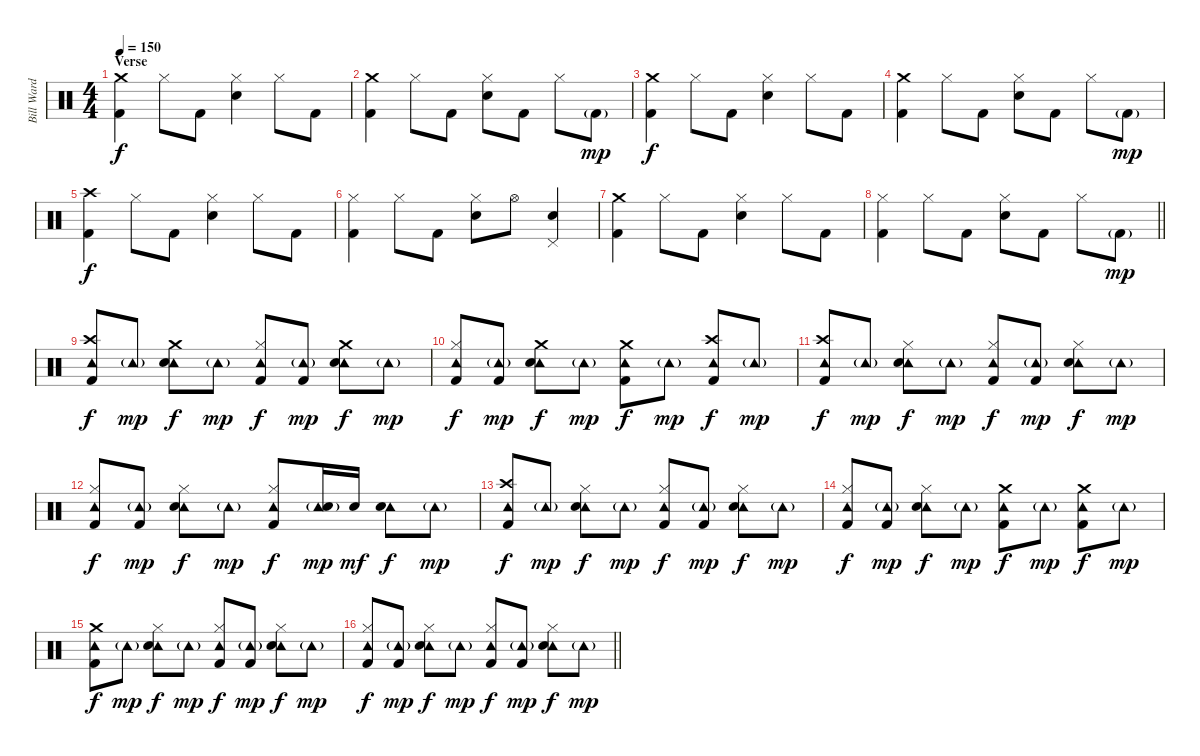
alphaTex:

\track ("Bill Ward" "Bill Ward") {instrument percussion}
\staff {score}
\articulation defaults
\ts (4 4)
\section ("" "Verse")
\tempo 150
\clef neutral
\ks c
("Crash medium (hit)" "Kick (hit) 2").4{dy f} "Hi-Hat (closed)".8 "Kick (hit) 2".8 ("Hi-Hat (closed)" "Electric Snare (hit)").4 "Hi-Hat (closed)".8 "Kick (hit) 2".8 |
("Crash medium (hit)" "Kick (hit) 2").4 "Hi-Hat (closed)".8 "Kick (hit) 2".8 ("Hi-Hat (closed)" "Electric Snare (hit)").8 "Kick (hit) 2".8 "Hi-Hat (closed)".8 "Kick (hit) 2"{g}.8{dy mp} |
("Crash medium (hit)" "Kick (hit) 2").4{dy f} "Hi-Hat (closed)".8 "Kick (hit) 2".8 ("Hi-Hat (closed)" "Electric Snare (hit)").4 "Hi-Hat (closed)".8 "Kick (hit) 2".8 |
("Crash medium (hit)" "Kick (hit) 2").4 "Hi-Hat (closed)".8 "Kick (hit) 2".8 ("Hi-Hat (closed)" "Electric Snare (hit)").8 "Kick (hit) 2".8 "Hi-Hat (closed)".8 "Kick (hit) 2"{g}.8{dy mp} |
("Crash high (hit)" "Kick (hit) 2").4{dy f} "Hi-Hat (closed)".8 "Kick (hit) 2".8 ("Hi-Hat (closed)" "Electric Snare (hit)").4 "Hi-Hat (closed)".8 "Kick (hit) 2".8 |
("Hi-Hat (closed)" "Kick (hit) 2").4 "Hi-Hat (closed)".8 "Kick (hit) 2".8 ("Hi-Hat (closed)" "Electric Snare (hit)").8 "Hi-Hat (open)".8 ("Pedal Hi-Hat (hit)" "Electric Snare (hit)").4 |
("Crash medium (hit)" "Kick (hit) 2").4 "Hi-Hat (closed)".8 "Kick (hit) 2".8 ("Hi-Hat (closed)" "Electric Snare (hit)").4 "Hi-Hat (closed)".8 "Kick (hit) 2".8 |
\barLineRight lightlight
("Hi-Hat (closed)" "Kick (hit) 2").4 "Hi-Hat (closed)".8 "Kick (hit) 2".8 ("Hi-Hat (closed)" "Electric Snare (hit)").8 "Kick (hit) 2".8 "Hi-Hat (closed)".8 "Kick (hit) 2"{g}.8{dy mp} |
\section ("" "")
("Crash high (hit)" "Tambourine (hit)" "Kick (hit) 2").8{dy f} "Tambourine (hit)"{g}.8{dy mp} ("Crash medium (hit)" "Tambourine (hit)" "Electric Snare (hit)").8{dy f} "Tambourine (hit)"{g}.8{dy mp} ("Hi-Hat (closed)" "Tambourine (hit)" "Kick (hit) 2").8{dy f} ("Tambourine (hit)"{g} "Kick (hit) 2").8{dy mp} ("Crash medium (hit)" "Tambourine (hit)" "Electric Snare (hit)").8{dy f} "Tambourine (hit)"{g}.8{dy mp} |
("Hi-Hat (closed)" "Tambourine (hit)" "Kick (hit) 2").8{dy f} ("Tambourine (hit)"{g} "Kick (hit) 2").8{dy mp} ("Crash medium (hit)" "Tambourine (hit)" "Electric Snare (hit)").8{dy f} "Tambourine (hit)"{g}.8{dy mp} ("Crash medium (hit)" "Tambourine (hit)" "Kick (hit) 2").8{dy f} "Tambourine (hit)"{g}.8{dy mp} ("Crash high (hit)" "Tambourine (hit)" "Kick (hit) 2").8{dy f} "Tambourine (hit)"{g}.8{dy mp} |
("Crash high (hit)" "Tambourine (hit)" "Kick (hit) 2").8{dy f} "Tambourine (hit)"{g}.8{dy mp} ("Hi-Hat (closed)" "Tambourine (hit)" "Electric Snare (hit)").8{dy f} "Tambourine (hit)"{g}.8{dy mp} ("Hi-Hat (closed)" "Tambourine (hit)" "Kick (hit) 2").8{dy f} ("Tambourine (hit)"{g} "Kick (hit) 2").8{dy mp} ("Hi-Hat (closed)" "Tambourine (hit)" "Electric Snare (hit)").8{dy f} "Tambourine (hit)"{g}.8{dy mp} |
("Hi-Hat (closed)" "Tambourine (hit)" "Kick (hit) 2").8{dy f} ("Tambourine (hit)"{g} "Kick (hit) 2").8{dy mp} ("Hi-Hat (closed)" "Tambourine (hit)" "Electric Snare (hit)").8{dy f} "Tambourine (hit)"{g}.8{dy mp} ("Hi-Hat (closed)" "Tambourine (hit)" "Kick (hit) 2").8{dy f} ("Tambourine (hit)"{g} "Electric Snare (hit)"{g}).16{dy mp} "Electric Snare (hit)".16{dy mf} ("Tambourine (hit)" "Electric Snare (hit)").8{dy f} "Tambourine (hit)"{g}.8{dy mp} |
("Crash high (hit)" "Tambourine (hit)" "Kick (hit) 2").8{dy f} "Tambourine (hit)"{g}.8{dy mp} ("Hi-Hat (closed)" "Tambourine (hit)" "Electric Snare (hit)").8{dy f} "Tambourine (hit)"{g}.8{dy mp} ("Hi-Hat (closed)" "Tambourine (hit)" "Kick (hit) 2").8{dy f} ("Tambourine (hit)"{g} "Kick (hit) 2").8{dy mp} ("Hi-Hat (closed)" "Tambourine (hit)" "Electric Snare (hit)").8{dy f} "Tambourine (hit)"{g}.8{dy mp} |
("Hi-Hat (closed)" "Tambourine (hit)" "Kick (hit) 2").8{dy f} ("Tambourine (hit)"{g} "Kick (hit) 2").8{dy mp} ("Hi-Hat (closed)" "Tambourine (hit)" "Electric Snare (hit)").8{dy f} "Tambourine (hit)"{g}.8{dy mp} ("Crash medium (hit)" "Tambourine (hit)" "Kick (hit) 2").8{dy f} "Tambourine (hit)"{g}.8{dy mp} ("Crash medium (hit)" "Tambourine (hit)" "Kick (hit) 2").8{dy f} "Tambourine (hit)"{g}.8{dy mp} |
("Crash medium (hit)" "Tambourine (hit)" "Kick (hit) 2").8{dy f} "Tambourine (hit)"{g}.8{dy mp} ("Hi-Hat (closed)" "Tambourine (hit)" "Electric Snare (hit)").8{dy f} "Tambourine (hit)"{g}.8{dy mp} ("Hi-Hat (closed)" "Tambourine (hit)" "Kick (hit) 2").8{dy f} ("Tambourine (hit)"{g} "Kick (hit) 2").8{dy mp} ("Hi-Hat (closed)" "Tambourine (hit)" "Electric Snare (hit)").8{dy f} "Tambourine (hit)"{g}.8{dy mp} |
\barLineRight lightlight
("Hi-Hat (closed)" "Tambourine (hit)" "Kick (hit) 2").8{dy f} ("Tambourine (hit)"{g} "Kick (hit) 2").8{dy mp} ("Hi-Hat (closed)" "Tambourine (hit)" "Electric Snare (hit)").8{dy f} "Tambourine (hit)"{g}.8{dy mp} ("Hi-Hat (closed)" "Tambourine (hit)" "Kick (hit) 2").8{dy f} ("Tambourine (hit)"{g} "Kick (hit) 2").8{dy mp} ("Hi-Hat (closed)" "Tambourine (hit)" "Electric Snare (hit)").8{dy f} "Tambourine (hit)"{g}.8{dy mp}
